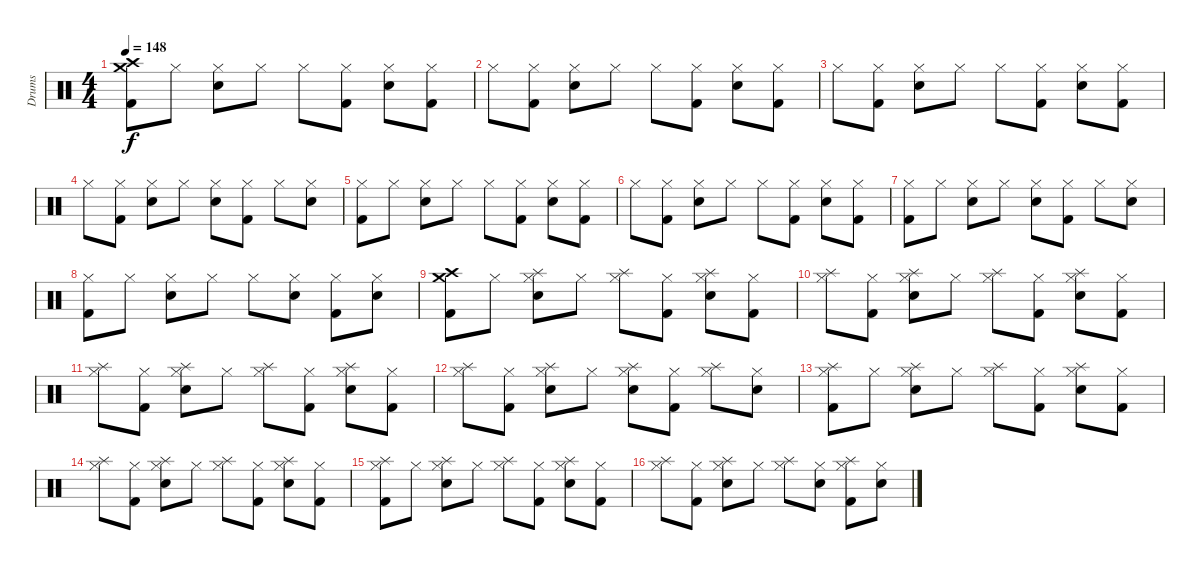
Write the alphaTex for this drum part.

\track ("Drums" "Drums") {instrument percussion}
\staff {score}
\articulation defaults
\ts (4 4)
\tempo 148
\clef neutral
\ks c
("Crash medium (hit)" "Crash high (hit)" "Kick (hit) 2").8{dy f} "Hi-Hat (closed)".8 ("Hi-Hat (closed)" "Snare (hit) 2").8 "Hi-Hat (closed)".8 "Hi-Hat (closed)".8 ("Hi-Hat (closed)" "Kick (hit) 2").8 ("Hi-Hat (closed)" "Snare (hit) 2").8 ("Hi-Hat (closed)" "Kick (hit) 2").8 |
"Hi-Hat (closed)".8 ("Hi-Hat (closed)" "Kick (hit) 2").8 ("Hi-Hat (closed)" "Snare (hit) 2").8{volume 13 balance 8} "Hi-Hat (closed)".8 "Hi-Hat (closed)".8 ("Hi-Hat (closed)" "Kick (hit) 2").8 ("Hi-Hat (closed)" "Snare (hit) 2").8 ("Hi-Hat (closed)" "Kick (hit) 2").8 |
"Hi-Hat (closed)".8 ("Hi-Hat (closed)" "Kick (hit) 2").8 ("Hi-Hat (closed)" "Snare (hit) 2").8 "Hi-Hat (closed)".8 "Hi-Hat (closed)".8 ("Hi-Hat (closed)" "Kick (hit) 2").8 ("Hi-Hat (closed)" "Snare (hit) 2").8 ("Hi-Hat (closed)" "Kick (hit) 2").8 |
"Hi-Hat (closed)".8 ("Hi-Hat (closed)" "Kick (hit) 2").8 ("Hi-Hat (closed)" "Snare (hit) 2").8 "Hi-Hat (closed)".8 ("Hi-Hat (closed)" "Snare (hit) 2").8 ("Hi-Hat (closed)" "Kick (hit) 2").8 "Hi-Hat (closed)".8 ("Hi-Hat (closed)" "Snare (hit) 2").8 |
("Hi-Hat (closed)" "Kick (hit) 2").8 "Hi-Hat (closed)".8 ("Hi-Hat (closed)" "Snare (hit) 2").8 "Hi-Hat (closed)".8 "Hi-Hat (closed)".8 ("Hi-Hat (closed)" "Kick (hit) 2").8 ("Hi-Hat (closed)" "Snare (hit) 2").8 ("Hi-Hat (closed)" "Kick (hit) 2").8 |
"Hi-Hat (closed)".8 ("Hi-Hat (closed)" "Kick (hit) 2").8 ("Hi-Hat (closed)" "Snare (hit) 2").8 "Hi-Hat (closed)".8 "Hi-Hat (closed)".8 ("Hi-Hat (closed)" "Kick (hit) 2").8 ("Hi-Hat (closed)" "Snare (hit) 2").8 ("Hi-Hat (closed)" "Kick (hit) 2").8 |
("Hi-Hat (closed)" "Kick (hit) 2").8 "Hi-Hat (closed)".8 ("Hi-Hat (closed)" "Snare (hit) 2").8 "Hi-Hat (closed)".8 ("Hi-Hat (closed)" "Snare (hit) 2").8 ("Hi-Hat (closed)" "Kick (hit) 2").8 "Hi-Hat (closed)".8 ("Hi-Hat (closed)" "Snare (hit) 2").8 |
("Hi-Hat (closed)" "Kick (hit) 2").8 "Hi-Hat (closed)".8 ("Hi-Hat (closed)" "Snare (hit) 2").8 "Hi-Hat (closed)".8 "Hi-Hat (closed)".8 ("Hi-Hat (closed)" "Snare (hit) 2").8 ("Hi-Hat (closed)" "Kick (hit) 2").8 ("Hi-Hat (closed)" "Snare (hit) 2").8 |
("Crash medium (hit)" "Crash high (hit)" "Kick (hit) 2").8 "Hi-Hat (closed)".8 ("Hi-Hat (closed)" "Snare (hit) 2" "Splash (hit)").8 "Hi-Hat (closed)".8 ("Hi-Hat (closed)" "Splash (hit)").8 ("Hi-Hat (closed)" "Kick (hit) 2").8 ("Hi-Hat (closed)" "Snare (hit) 2" "Splash (hit)").8 ("Hi-Hat (closed)" "Kick (hit) 2").8 |
("Hi-Hat (closed)" "Splash (hit)").8 ("Hi-Hat (closed)" "Kick (hit) 2").8 ("Hi-Hat (closed)" "Splash (hit)" "Snare (hit) 2").8{volume 13 balance 8} "Hi-Hat (closed)".8 ("Hi-Hat (closed)" "Splash (hit)").8 ("Hi-Hat (closed)" "Kick (hit) 2").8 ("Hi-Hat (closed)" "Snare (hit) 2" "Splash (hit)").8 ("Hi-Hat (closed)" "Kick (hit) 2").8 |
("Hi-Hat (closed)" "Splash (hit)").8 ("Hi-Hat (closed)" "Kick (hit) 2").8 ("Hi-Hat (closed)" "Splash (hit)" "Snare (hit) 2").8 "Hi-Hat (closed)".8 ("Hi-Hat (closed)" "Splash (hit)").8 ("Hi-Hat (closed)" "Kick (hit) 2").8 ("Hi-Hat (closed)" "Snare (hit) 2" "Splash (hit)").8 ("Hi-Hat (closed)" "Kick (hit) 2").8 |
("Hi-Hat (closed)" "Splash (hit)").8 ("Hi-Hat (closed)" "Kick (hit) 2").8 ("Hi-Hat (closed)" "Splash (hit)" "Snare (hit) 2").8 "Hi-Hat (closed)".8 ("Hi-Hat (closed)" "Snare (hit) 2" "Splash (hit)").8 ("Hi-Hat (closed)" "Kick (hit) 2").8 ("Hi-Hat (closed)" "Splash (hit)").8 ("Hi-Hat (closed)" "Snare (hit) 2").8 |
("Hi-Hat (closed)" "Splash (hit)" "Kick (hit) 2").8 "Hi-Hat (closed)".8 ("Hi-Hat (closed)" "Splash (hit)" "Snare (hit) 2").8 "Hi-Hat (closed)".8 ("Hi-Hat (closed)" "Splash (hit)").8 ("Hi-Hat (closed)" "Kick (hit) 2").8 ("Hi-Hat (closed)" "Snare (hit) 2" "Splash (hit)").8 ("Hi-Hat (closed)" "Kick (hit) 2").8 |
("Hi-Hat (closed)" "Splash (hit)").8 ("Hi-Hat (closed)" "Kick (hit) 2").8 ("Hi-Hat (closed)" "Snare (hit) 2" "Splash (hit)").8 "Hi-Hat (closed)".8 ("Hi-Hat (closed)" "Splash (hit)").8 ("Hi-Hat (closed)" "Kick (hit) 2").8 ("Hi-Hat (closed)" "Snare (hit) 2" "Splash (hit)").8 ("Hi-Hat (closed)" "Kick (hit) 2").8 |
("Hi-Hat (closed)" "Kick (hit) 2" "Splash (hit)").8 "Hi-Hat (closed)".8 ("Hi-Hat (closed)" "Snare (hit) 2" "Splash (hit)").8 "Hi-Hat (closed)".8 ("Hi-Hat (closed)" "Splash (hit)").8 ("Hi-Hat (closed)" "Kick (hit) 2").8 ("Hi-Hat (closed)" "Snare (hit) 2" "Splash (hit)").8 ("Hi-Hat (closed)" "Kick (hit) 2").8 |
("Hi-Hat (closed)" "Splash (hit)").8 ("Hi-Hat (closed)" "Kick (hit) 2").8 ("Hi-Hat (closed)" "Snare (hit) 2" "Splash (hit)").8 "Hi-Hat (closed)".8 ("Hi-Hat (closed)" "Splash (hit)").8 ("Hi-Hat (closed)" "Snare (hit) 2").8 ("Hi-Hat (closed)" "Kick (hit) 2" "Splash (hit)").8 ("Hi-Hat (closed)" "Snare (hit) 2").8
